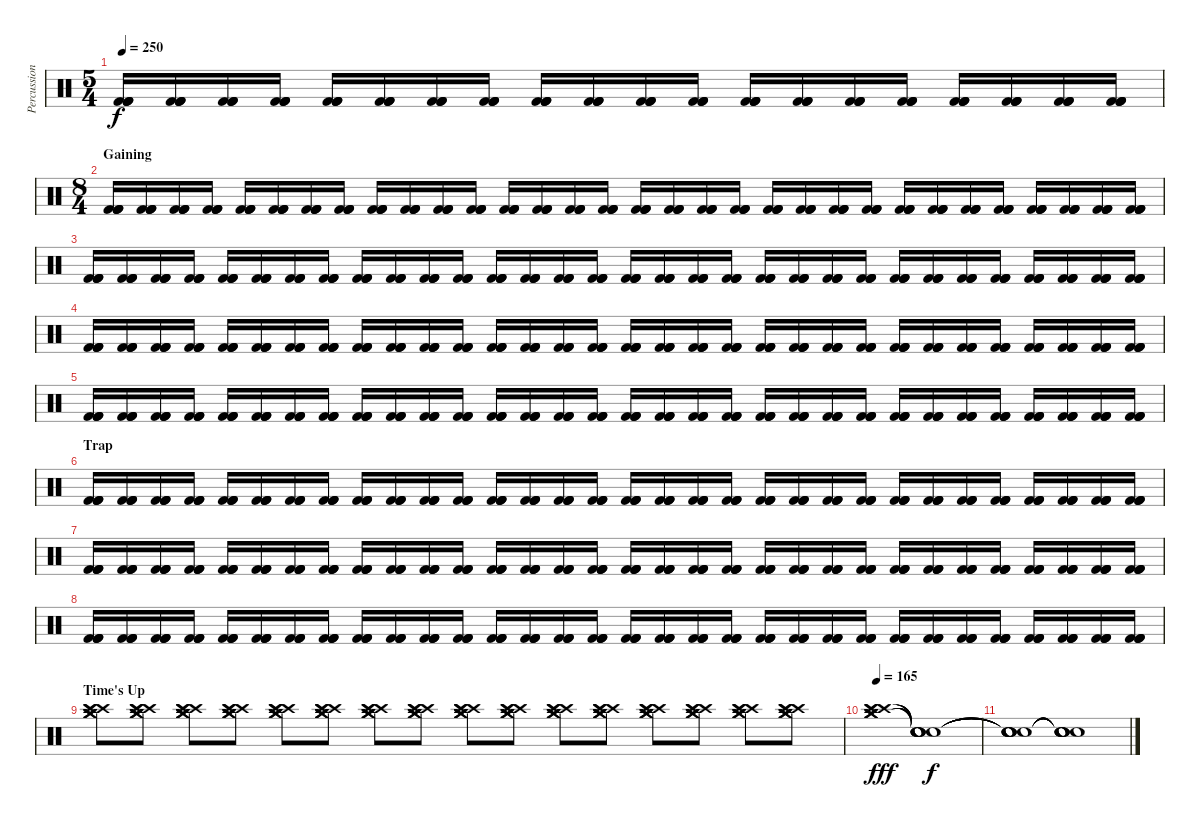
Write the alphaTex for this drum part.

\track ("Percussion" "Percussion") {instrument percussion}
\staff {score}
\articulation defaults
\ts (5 4)
\tempo 250
\clef neutral
\ks c
("Kick (hit) 2" "Kick (hit) 2" "Kick (hit) 2" "Kick (hit) 2").16{dy f} ("Kick (hit) 2" "Kick (hit) 2" "Kick (hit) 2" "Kick (hit) 2").16 ("Kick (hit) 2" "Kick (hit) 2" "Kick (hit) 2" "Kick (hit) 2").16 ("Kick (hit) 2" "Kick (hit) 2" "Kick (hit) 2" "Kick (hit) 2").16 ("Kick (hit) 2" "Kick (hit) 2" "Kick (hit) 2" "Kick (hit) 2").16 ("Kick (hit) 2" "Kick (hit) 2" "Kick (hit) 2" "Kick (hit) 2").16 ("Kick (hit) 2" "Kick (hit) 2" "Kick (hit) 2" "Kick (hit) 2").16 ("Kick (hit) 2" "Kick (hit) 2" "Kick (hit) 2" "Kick (hit) 2").16 ("Kick (hit) 2" "Kick (hit) 2" "Kick (hit) 2" "Kick (hit) 2").16 ("Kick (hit) 2" "Kick (hit) 2" "Kick (hit) 2" "Kick (hit) 2").16 ("Kick (hit) 2" "Kick (hit) 2" "Kick (hit) 2" "Kick (hit) 2").16 ("Kick (hit) 2" "Kick (hit) 2" "Kick (hit) 2" "Kick (hit) 2").16 ("Kick (hit) 2" "Kick (hit) 2" "Kick (hit) 2" "Kick (hit) 2").16 ("Kick (hit) 2" "Kick (hit) 2" "Kick (hit) 2" "Kick (hit) 2").16 ("Kick (hit) 2" "Kick (hit) 2" "Kick (hit) 2" "Kick (hit) 2").16 ("Kick (hit) 2" "Kick (hit) 2" "Kick (hit) 2" "Kick (hit) 2").16 ("Kick (hit) 2" "Kick (hit) 2" "Kick (hit) 2" "Kick (hit) 2").16 ("Kick (hit) 2" "Kick (hit) 2" "Kick (hit) 2" "Kick (hit) 2").16 ("Kick (hit) 2" "Kick (hit) 2" "Kick (hit) 2" "Kick (hit) 2").16 ("Kick (hit) 2" "Kick (hit) 2" "Kick (hit) 2" "Kick (hit) 2").16 |
\ts (8 4)
\section ("" "Gaining")
("Kick (hit) 2" "Kick (hit) 2" "Kick (hit) 2" "Kick (hit) 2").16 ("Kick (hit) 2" "Kick (hit) 2" "Kick (hit) 2" "Kick (hit) 2").16 ("Kick (hit) 2" "Kick (hit) 2" "Kick (hit) 2" "Kick (hit) 2").16 ("Kick (hit) 2" "Kick (hit) 2" "Kick (hit) 2" "Kick (hit) 2").16 ("Kick (hit) 2" "Kick (hit) 2" "Kick (hit) 2" "Kick (hit) 2").16 ("Kick (hit) 2" "Kick (hit) 2" "Kick (hit) 2" "Kick (hit) 2").16 ("Kick (hit) 2" "Kick (hit) 2" "Kick (hit) 2" "Kick (hit) 2").16 ("Kick (hit) 2" "Kick (hit) 2" "Kick (hit) 2" "Kick (hit) 2").16 ("Kick (hit) 2" "Kick (hit) 2" "Kick (hit) 2" "Kick (hit) 2").16 ("Kick (hit) 2" "Kick (hit) 2" "Kick (hit) 2" "Kick (hit) 2").16 ("Kick (hit) 2" "Kick (hit) 2" "Kick (hit) 2" "Kick (hit) 2").16 ("Kick (hit) 2" "Kick (hit) 2" "Kick (hit) 2" "Kick (hit) 2").16 ("Kick (hit) 2" "Kick (hit) 2" "Kick (hit) 2" "Kick (hit) 2").16 ("Kick (hit) 2" "Kick (hit) 2" "Kick (hit) 2" "Kick (hit) 2").16 ("Kick (hit) 2" "Kick (hit) 2" "Kick (hit) 2" "Kick (hit) 2").16 ("Kick (hit) 2" "Kick (hit) 2" "Kick (hit) 2" "Kick (hit) 2").16 ("Kick (hit) 2" "Kick (hit) 2" "Kick (hit) 2" "Kick (hit) 2").16 ("Kick (hit) 2" "Kick (hit) 2" "Kick (hit) 2" "Kick (hit) 2").16 ("Kick (hit) 2" "Kick (hit) 2" "Kick (hit) 2" "Kick (hit) 2").16 ("Kick (hit) 2" "Kick (hit) 2" "Kick (hit) 2" "Kick (hit) 2").16 ("Kick (hit) 2" "Kick (hit) 2" "Kick (hit) 2" "Kick (hit) 2").16 ("Kick (hit) 2" "Kick (hit) 2" "Kick (hit) 2" "Kick (hit) 2").16 ("Kick (hit) 2" "Kick (hit) 2" "Kick (hit) 2" "Kick (hit) 2").16 ("Kick (hit) 2" "Kick (hit) 2" "Kick (hit) 2" "Kick (hit) 2").16 ("Kick (hit) 2" "Kick (hit) 2" "Kick (hit) 2" "Kick (hit) 2").16 ("Kick (hit) 2" "Kick (hit) 2" "Kick (hit) 2" "Kick (hit) 2").16 ("Kick (hit) 2" "Kick (hit) 2" "Kick (hit) 2" "Kick (hit) 2").16 ("Kick (hit) 2" "Kick (hit) 2" "Kick (hit) 2" "Kick (hit) 2").16 ("Kick (hit) 2" "Kick (hit) 2" "Kick (hit) 2" "Kick (hit) 2").16 ("Kick (hit) 2" "Kick (hit) 2" "Kick (hit) 2" "Kick (hit) 2").16 ("Kick (hit) 2" "Kick (hit) 2" "Kick (hit) 2" "Kick (hit) 2").16 ("Kick (hit) 2" "Kick (hit) 2" "Kick (hit) 2" "Kick (hit) 2").16 |
("Kick (hit) 2" "Kick (hit) 2" "Kick (hit) 2" "Kick (hit) 2").16 ("Kick (hit) 2" "Kick (hit) 2" "Kick (hit) 2" "Kick (hit) 2").16 ("Kick (hit) 2" "Kick (hit) 2" "Kick (hit) 2" "Kick (hit) 2").16 ("Kick (hit) 2" "Kick (hit) 2" "Kick (hit) 2" "Kick (hit) 2").16 ("Kick (hit) 2" "Kick (hit) 2" "Kick (hit) 2" "Kick (hit) 2").16 ("Kick (hit) 2" "Kick (hit) 2" "Kick (hit) 2" "Kick (hit) 2").16 ("Kick (hit) 2" "Kick (hit) 2" "Kick (hit) 2" "Kick (hit) 2").16 ("Kick (hit) 2" "Kick (hit) 2" "Kick (hit) 2" "Kick (hit) 2").16 ("Kick (hit) 2" "Kick (hit) 2" "Kick (hit) 2" "Kick (hit) 2").16 ("Kick (hit) 2" "Kick (hit) 2" "Kick (hit) 2" "Kick (hit) 2").16 ("Kick (hit) 2" "Kick (hit) 2" "Kick (hit) 2" "Kick (hit) 2").16 ("Kick (hit) 2" "Kick (hit) 2" "Kick (hit) 2" "Kick (hit) 2").16 ("Kick (hit) 2" "Kick (hit) 2" "Kick (hit) 2" "Kick (hit) 2").16 ("Kick (hit) 2" "Kick (hit) 2" "Kick (hit) 2" "Kick (hit) 2").16 ("Kick (hit) 2" "Kick (hit) 2" "Kick (hit) 2" "Kick (hit) 2").16 ("Kick (hit) 2" "Kick (hit) 2" "Kick (hit) 2" "Kick (hit) 2").16 ("Kick (hit) 2" "Kick (hit) 2" "Kick (hit) 2" "Kick (hit) 2").16 ("Kick (hit) 2" "Kick (hit) 2" "Kick (hit) 2" "Kick (hit) 2").16 ("Kick (hit) 2" "Kick (hit) 2" "Kick (hit) 2" "Kick (hit) 2").16 ("Kick (hit) 2" "Kick (hit) 2" "Kick (hit) 2" "Kick (hit) 2").16 ("Kick (hit) 2" "Kick (hit) 2" "Kick (hit) 2" "Kick (hit) 2").16 ("Kick (hit) 2" "Kick (hit) 2" "Kick (hit) 2" "Kick (hit) 2").16 ("Kick (hit) 2" "Kick (hit) 2" "Kick (hit) 2" "Kick (hit) 2").16 ("Kick (hit) 2" "Kick (hit) 2" "Kick (hit) 2" "Kick (hit) 2").16 ("Kick (hit) 2" "Kick (hit) 2" "Kick (hit) 2" "Kick (hit) 2").16 ("Kick (hit) 2" "Kick (hit) 2" "Kick (hit) 2" "Kick (hit) 2").16 ("Kick (hit) 2" "Kick (hit) 2" "Kick (hit) 2" "Kick (hit) 2").16 ("Kick (hit) 2" "Kick (hit) 2" "Kick (hit) 2" "Kick (hit) 2").16 ("Kick (hit) 2" "Kick (hit) 2" "Kick (hit) 2" "Kick (hit) 2").16 ("Kick (hit) 2" "Kick (hit) 2" "Kick (hit) 2" "Kick (hit) 2").16 ("Kick (hit) 2" "Kick (hit) 2" "Kick (hit) 2" "Kick (hit) 2").16 ("Kick (hit) 2" "Kick (hit) 2" "Kick (hit) 2" "Kick (hit) 2").16 |
("Kick (hit) 2" "Kick (hit) 2" "Kick (hit) 2" "Kick (hit) 2").16 ("Kick (hit) 2" "Kick (hit) 2" "Kick (hit) 2" "Kick (hit) 2").16 ("Kick (hit) 2" "Kick (hit) 2" "Kick (hit) 2" "Kick (hit) 2").16 ("Kick (hit) 2" "Kick (hit) 2" "Kick (hit) 2" "Kick (hit) 2").16 ("Kick (hit) 2" "Kick (hit) 2" "Kick (hit) 2" "Kick (hit) 2").16 ("Kick (hit) 2" "Kick (hit) 2" "Kick (hit) 2" "Kick (hit) 2").16 ("Kick (hit) 2" "Kick (hit) 2" "Kick (hit) 2" "Kick (hit) 2").16 ("Kick (hit) 2" "Kick (hit) 2" "Kick (hit) 2" "Kick (hit) 2").16 ("Kick (hit) 2" "Kick (hit) 2" "Kick (hit) 2" "Kick (hit) 2").16 ("Kick (hit) 2" "Kick (hit) 2" "Kick (hit) 2" "Kick (hit) 2").16 ("Kick (hit) 2" "Kick (hit) 2" "Kick (hit) 2" "Kick (hit) 2").16 ("Kick (hit) 2" "Kick (hit) 2" "Kick (hit) 2" "Kick (hit) 2").16 ("Kick (hit) 2" "Kick (hit) 2" "Kick (hit) 2" "Kick (hit) 2").16 ("Kick (hit) 2" "Kick (hit) 2" "Kick (hit) 2" "Kick (hit) 2").16 ("Kick (hit) 2" "Kick (hit) 2" "Kick (hit) 2" "Kick (hit) 2").16 ("Kick (hit) 2" "Kick (hit) 2" "Kick (hit) 2" "Kick (hit) 2").16 ("Kick (hit) 2" "Kick (hit) 2" "Kick (hit) 2" "Kick (hit) 2").16 ("Kick (hit) 2" "Kick (hit) 2" "Kick (hit) 2" "Kick (hit) 2").16 ("Kick (hit) 2" "Kick (hit) 2" "Kick (hit) 2" "Kick (hit) 2").16 ("Kick (hit) 2" "Kick (hit) 2" "Kick (hit) 2" "Kick (hit) 2").16 ("Kick (hit) 2" "Kick (hit) 2" "Kick (hit) 2" "Kick (hit) 2").16 ("Kick (hit) 2" "Kick (hit) 2" "Kick (hit) 2" "Kick (hit) 2").16 ("Kick (hit) 2" "Kick (hit) 2" "Kick (hit) 2" "Kick (hit) 2").16 ("Kick (hit) 2" "Kick (hit) 2" "Kick (hit) 2" "Kick (hit) 2").16 ("Kick (hit) 2" "Kick (hit) 2" "Kick (hit) 2" "Kick (hit) 2").16 ("Kick (hit) 2" "Kick (hit) 2" "Kick (hit) 2" "Kick (hit) 2").16 ("Kick (hit) 2" "Kick (hit) 2" "Kick (hit) 2" "Kick (hit) 2").16 ("Kick (hit) 2" "Kick (hit) 2" "Kick (hit) 2" "Kick (hit) 2").16 ("Kick (hit) 2" "Kick (hit) 2" "Kick (hit) 2" "Kick (hit) 2").16 ("Kick (hit) 2" "Kick (hit) 2" "Kick (hit) 2" "Kick (hit) 2").16 ("Kick (hit) 2" "Kick (hit) 2" "Kick (hit) 2" "Kick (hit) 2").16 ("Kick (hit) 2" "Kick (hit) 2" "Kick (hit) 2" "Kick (hit) 2").16 |
("Kick (hit) 2" "Kick (hit) 2" "Kick (hit) 2" "Kick (hit) 2").16 ("Kick (hit) 2" "Kick (hit) 2" "Kick (hit) 2" "Kick (hit) 2").16 ("Kick (hit) 2" "Kick (hit) 2" "Kick (hit) 2" "Kick (hit) 2").16 ("Kick (hit) 2" "Kick (hit) 2" "Kick (hit) 2" "Kick (hit) 2").16 ("Kick (hit) 2" "Kick (hit) 2" "Kick (hit) 2" "Kick (hit) 2").16 ("Kick (hit) 2" "Kick (hit) 2" "Kick (hit) 2" "Kick (hit) 2").16 ("Kick (hit) 2" "Kick (hit) 2" "Kick (hit) 2" "Kick (hit) 2").16 ("Kick (hit) 2" "Kick (hit) 2" "Kick (hit) 2" "Kick (hit) 2").16 ("Kick (hit) 2" "Kick (hit) 2" "Kick (hit) 2" "Kick (hit) 2").16 ("Kick (hit) 2" "Kick (hit) 2" "Kick (hit) 2" "Kick (hit) 2").16 ("Kick (hit) 2" "Kick (hit) 2" "Kick (hit) 2" "Kick (hit) 2").16 ("Kick (hit) 2" "Kick (hit) 2" "Kick (hit) 2" "Kick (hit) 2").16 ("Kick (hit) 2" "Kick (hit) 2" "Kick (hit) 2" "Kick (hit) 2").16 ("Kick (hit) 2" "Kick (hit) 2" "Kick (hit) 2" "Kick (hit) 2").16 ("Kick (hit) 2" "Kick (hit) 2" "Kick (hit) 2" "Kick (hit) 2").16 ("Kick (hit) 2" "Kick (hit) 2" "Kick (hit) 2" "Kick (hit) 2").16 ("Kick (hit) 2" "Kick (hit) 2" "Kick (hit) 2" "Kick (hit) 2").16 ("Kick (hit) 2" "Kick (hit) 2" "Kick (hit) 2" "Kick (hit) 2").16 ("Kick (hit) 2" "Kick (hit) 2" "Kick (hit) 2" "Kick (hit) 2").16 ("Kick (hit) 2" "Kick (hit) 2" "Kick (hit) 2" "Kick (hit) 2").16 ("Kick (hit) 2" "Kick (hit) 2" "Kick (hit) 2" "Kick (hit) 2").16 ("Kick (hit) 2" "Kick (hit) 2" "Kick (hit) 2" "Kick (hit) 2").16 ("Kick (hit) 2" "Kick (hit) 2" "Kick (hit) 2" "Kick (hit) 2").16 ("Kick (hit) 2" "Kick (hit) 2" "Kick (hit) 2" "Kick (hit) 2").16 ("Kick (hit) 2" "Kick (hit) 2" "Kick (hit) 2" "Kick (hit) 2").16 ("Kick (hit) 2" "Kick (hit) 2" "Kick (hit) 2" "Kick (hit) 2").16 ("Kick (hit) 2" "Kick (hit) 2" "Kick (hit) 2" "Kick (hit) 2").16 ("Kick (hit) 2" "Kick (hit) 2" "Kick (hit) 2" "Kick (hit) 2").16 ("Kick (hit) 2" "Kick (hit) 2" "Kick (hit) 2" "Kick (hit) 2").16 ("Kick (hit) 2" "Kick (hit) 2" "Kick (hit) 2" "Kick (hit) 2").16 ("Kick (hit) 2" "Kick (hit) 2" "Kick (hit) 2" "Kick (hit) 2").16 ("Kick (hit) 2" "Kick (hit) 2" "Kick (hit) 2" "Kick (hit) 2").16 |
\section ("" "Trap")
("Kick (hit) 2" "Kick (hit) 2" "Kick (hit) 2" "Kick (hit) 2").16 ("Kick (hit) 2" "Kick (hit) 2" "Kick (hit) 2" "Kick (hit) 2").16 ("Kick (hit) 2" "Kick (hit) 2" "Kick (hit) 2" "Kick (hit) 2").16 ("Kick (hit) 2" "Kick (hit) 2" "Kick (hit) 2" "Kick (hit) 2").16 ("Kick (hit) 2" "Kick (hit) 2" "Kick (hit) 2" "Kick (hit) 2").16 ("Kick (hit) 2" "Kick (hit) 2" "Kick (hit) 2" "Kick (hit) 2").16 ("Kick (hit) 2" "Kick (hit) 2" "Kick (hit) 2" "Kick (hit) 2").16 ("Kick (hit) 2" "Kick (hit) 2" "Kick (hit) 2" "Kick (hit) 2").16 ("Kick (hit) 2" "Kick (hit) 2" "Kick (hit) 2" "Kick (hit) 2").16 ("Kick (hit) 2" "Kick (hit) 2" "Kick (hit) 2" "Kick (hit) 2").16 ("Kick (hit) 2" "Kick (hit) 2" "Kick (hit) 2" "Kick (hit) 2").16 ("Kick (hit) 2" "Kick (hit) 2" "Kick (hit) 2" "Kick (hit) 2").16 ("Kick (hit) 2" "Kick (hit) 2" "Kick (hit) 2" "Kick (hit) 2").16 ("Kick (hit) 2" "Kick (hit) 2" "Kick (hit) 2" "Kick (hit) 2").16 ("Kick (hit) 2" "Kick (hit) 2" "Kick (hit) 2" "Kick (hit) 2").16 ("Kick (hit) 2" "Kick (hit) 2" "Kick (hit) 2" "Kick (hit) 2").16 ("Kick (hit) 2" "Kick (hit) 2" "Kick (hit) 2" "Kick (hit) 2").16 ("Kick (hit) 2" "Kick (hit) 2" "Kick (hit) 2" "Kick (hit) 2").16 ("Kick (hit) 2" "Kick (hit) 2" "Kick (hit) 2" "Kick (hit) 2").16 ("Kick (hit) 2" "Kick (hit) 2" "Kick (hit) 2" "Kick (hit) 2").16 ("Kick (hit) 2" "Kick (hit) 2" "Kick (hit) 2" "Kick (hit) 2").16 ("Kick (hit) 2" "Kick (hit) 2" "Kick (hit) 2" "Kick (hit) 2").16 ("Kick (hit) 2" "Kick (hit) 2" "Kick (hit) 2" "Kick (hit) 2").16 ("Kick (hit) 2" "Kick (hit) 2" "Kick (hit) 2" "Kick (hit) 2").16 ("Kick (hit) 2" "Kick (hit) 2" "Kick (hit) 2" "Kick (hit) 2").16 ("Kick (hit) 2" "Kick (hit) 2" "Kick (hit) 2" "Kick (hit) 2").16 ("Kick (hit) 2" "Kick (hit) 2" "Kick (hit) 2" "Kick (hit) 2").16 ("Kick (hit) 2" "Kick (hit) 2" "Kick (hit) 2" "Kick (hit) 2").16 ("Kick (hit) 2" "Kick (hit) 2" "Kick (hit) 2" "Kick (hit) 2").16 ("Kick (hit) 2" "Kick (hit) 2" "Kick (hit) 2" "Kick (hit) 2").16 ("Kick (hit) 2" "Kick (hit) 2" "Kick (hit) 2" "Kick (hit) 2").16 ("Kick (hit) 2" "Kick (hit) 2" "Kick (hit) 2" "Kick (hit) 2").16 |
("Kick (hit) 2" "Kick (hit) 2" "Kick (hit) 2" "Kick (hit) 2").16 ("Kick (hit) 2" "Kick (hit) 2" "Kick (hit) 2" "Kick (hit) 2").16 ("Kick (hit) 2" "Kick (hit) 2" "Kick (hit) 2" "Kick (hit) 2").16 ("Kick (hit) 2" "Kick (hit) 2" "Kick (hit) 2" "Kick (hit) 2").16 ("Kick (hit) 2" "Kick (hit) 2" "Kick (hit) 2" "Kick (hit) 2").16 ("Kick (hit) 2" "Kick (hit) 2" "Kick (hit) 2" "Kick (hit) 2").16 ("Kick (hit) 2" "Kick (hit) 2" "Kick (hit) 2" "Kick (hit) 2").16 ("Kick (hit) 2" "Kick (hit) 2" "Kick (hit) 2" "Kick (hit) 2").16 ("Kick (hit) 2" "Kick (hit) 2" "Kick (hit) 2" "Kick (hit) 2").16 ("Kick (hit) 2" "Kick (hit) 2" "Kick (hit) 2" "Kick (hit) 2").16 ("Kick (hit) 2" "Kick (hit) 2" "Kick (hit) 2" "Kick (hit) 2").16 ("Kick (hit) 2" "Kick (hit) 2" "Kick (hit) 2" "Kick (hit) 2").16 ("Kick (hit) 2" "Kick (hit) 2" "Kick (hit) 2" "Kick (hit) 2").16 ("Kick (hit) 2" "Kick (hit) 2" "Kick (hit) 2" "Kick (hit) 2").16 ("Kick (hit) 2" "Kick (hit) 2" "Kick (hit) 2" "Kick (hit) 2").16 ("Kick (hit) 2" "Kick (hit) 2" "Kick (hit) 2" "Kick (hit) 2").16 ("Kick (hit) 2" "Kick (hit) 2" "Kick (hit) 2" "Kick (hit) 2").16 ("Kick (hit) 2" "Kick (hit) 2" "Kick (hit) 2" "Kick (hit) 2").16 ("Kick (hit) 2" "Kick (hit) 2" "Kick (hit) 2" "Kick (hit) 2").16 ("Kick (hit) 2" "Kick (hit) 2" "Kick (hit) 2" "Kick (hit) 2").16 ("Kick (hit) 2" "Kick (hit) 2" "Kick (hit) 2" "Kick (hit) 2").16 ("Kick (hit) 2" "Kick (hit) 2" "Kick (hit) 2" "Kick (hit) 2").16 ("Kick (hit) 2" "Kick (hit) 2" "Kick (hit) 2" "Kick (hit) 2").16 ("Kick (hit) 2" "Kick (hit) 2" "Kick (hit) 2" "Kick (hit) 2").16 ("Kick (hit) 2" "Kick (hit) 2" "Kick (hit) 2" "Kick (hit) 2").16 ("Kick (hit) 2" "Kick (hit) 2" "Kick (hit) 2" "Kick (hit) 2").16 ("Kick (hit) 2" "Kick (hit) 2" "Kick (hit) 2" "Kick (hit) 2").16 ("Kick (hit) 2" "Kick (hit) 2" "Kick (hit) 2" "Kick (hit) 2").16 ("Kick (hit) 2" "Kick (hit) 2" "Kick (hit) 2" "Kick (hit) 2").16 ("Kick (hit) 2" "Kick (hit) 2" "Kick (hit) 2" "Kick (hit) 2").16 ("Kick (hit) 2" "Kick (hit) 2" "Kick (hit) 2" "Kick (hit) 2").16 ("Kick (hit) 2" "Kick (hit) 2" "Kick (hit) 2" "Kick (hit) 2").16 |
("Kick (hit) 2" "Kick (hit) 2" "Kick (hit) 2" "Kick (hit) 2").16 ("Kick (hit) 2" "Kick (hit) 2" "Kick (hit) 2" "Kick (hit) 2").16 ("Kick (hit) 2" "Kick (hit) 2" "Kick (hit) 2" "Kick (hit) 2").16 ("Kick (hit) 2" "Kick (hit) 2" "Kick (hit) 2" "Kick (hit) 2").16 ("Kick (hit) 2" "Kick (hit) 2" "Kick (hit) 2" "Kick (hit) 2").16 ("Kick (hit) 2" "Kick (hit) 2" "Kick (hit) 2" "Kick (hit) 2").16 ("Kick (hit) 2" "Kick (hit) 2" "Kick (hit) 2" "Kick (hit) 2").16 ("Kick (hit) 2" "Kick (hit) 2" "Kick (hit) 2" "Kick (hit) 2").16 ("Kick (hit) 2" "Kick (hit) 2" "Kick (hit) 2" "Kick (hit) 2").16 ("Kick (hit) 2" "Kick (hit) 2" "Kick (hit) 2" "Kick (hit) 2").16 ("Kick (hit) 2" "Kick (hit) 2" "Kick (hit) 2" "Kick (hit) 2").16 ("Kick (hit) 2" "Kick (hit) 2" "Kick (hit) 2" "Kick (hit) 2").16 ("Kick (hit) 2" "Kick (hit) 2" "Kick (hit) 2" "Kick (hit) 2").16 ("Kick (hit) 2" "Kick (hit) 2" "Kick (hit) 2" "Kick (hit) 2").16 ("Kick (hit) 2" "Kick (hit) 2" "Kick (hit) 2" "Kick (hit) 2").16 ("Kick (hit) 2" "Kick (hit) 2" "Kick (hit) 2" "Kick (hit) 2").16 ("Kick (hit) 2" "Kick (hit) 2" "Kick (hit) 2" "Kick (hit) 2").16 ("Kick (hit) 2" "Kick (hit) 2" "Kick (hit) 2" "Kick (hit) 2").16 ("Kick (hit) 2" "Kick (hit) 2" "Kick (hit) 2" "Kick (hit) 2").16 ("Kick (hit) 2" "Kick (hit) 2" "Kick (hit) 2" "Kick (hit) 2").16 ("Kick (hit) 2" "Kick (hit) 2" "Kick (hit) 2" "Kick (hit) 2").16 ("Kick (hit) 2" "Kick (hit) 2" "Kick (hit) 2" "Kick (hit) 2").16 ("Kick (hit) 2" "Kick (hit) 2" "Kick (hit) 2" "Kick (hit) 2").16 ("Kick (hit) 2" "Kick (hit) 2" "Kick (hit) 2" "Kick (hit) 2").16 ("Kick (hit) 2" "Kick (hit) 2" "Kick (hit) 2" "Kick (hit) 2").16 ("Kick (hit) 2" "Kick (hit) 2" "Kick (hit) 2" "Kick (hit) 2").16 ("Kick (hit) 2" "Kick (hit) 2" "Kick (hit) 2" "Kick (hit) 2").16 ("Kick (hit) 2" "Kick (hit) 2" "Kick (hit) 2" "Kick (hit) 2").16 ("Kick (hit) 2" "Kick (hit) 2" "Kick (hit) 2" "Kick (hit) 2").16 ("Kick (hit) 2" "Kick (hit) 2" "Kick (hit) 2" "Kick (hit) 2").16 ("Kick (hit) 2" "Kick (hit) 2" "Kick (hit) 2" "Kick (hit) 2").16 ("Kick (hit) 2" "Kick (hit) 2" "Kick (hit) 2" "Kick (hit) 2").16 |
\section ("" "Time's Up")
("Crash high (hit)" "Crash high (hit)" "Crash high (hit)" "Crash medium (hit)" "Crash medium (hit)" "Crash medium (hit)").8 ("Crash high (hit)" "Crash high (hit)" "Crash high (hit)" "Crash medium (hit)" "Crash medium (hit)" "Crash medium (hit)").8 ("Crash high (hit)" "Crash high (hit)" "Crash high (hit)" "Crash medium (hit)" "Crash medium (hit)" "Crash medium (hit)").8 ("Crash high (hit)" "Crash high (hit)" "Crash high (hit)" "Crash medium (hit)" "Crash medium (hit)" "Crash medium (hit)").8 ("Crash high (hit)" "Crash high (hit)" "Crash high (hit)" "Crash medium (hit)" "Crash medium (hit)" "Crash medium (hit)").8 ("Crash high (hit)" "Crash high (hit)" "Crash high (hit)" "Crash medium (hit)" "Crash medium (hit)" "Crash medium (hit)").8 ("Crash high (hit)" "Crash high (hit)" "Crash high (hit)" "Crash medium (hit)" "Crash medium (hit)" "Crash medium (hit)").8 ("Crash high (hit)" "Crash high (hit)" "Crash high (hit)" "Crash medium (hit)" "Crash medium (hit)" "Crash medium (hit)").8 ("Crash high (hit)" "Crash high (hit)" "Crash high (hit)" "Crash medium (hit)" "Crash medium (hit)" "Crash medium (hit)").8 ("Crash high (hit)" "Crash high (hit)" "Crash high (hit)" "Crash medium (hit)" "Crash medium (hit)" "Crash medium (hit)").8 ("Crash high (hit)" "Crash high (hit)" "Crash high (hit)" "Crash medium (hit)" "Crash medium (hit)" "Crash medium (hit)").8 ("Crash high (hit)" "Crash high (hit)" "Crash high (hit)" "Crash medium (hit)" "Crash medium (hit)" "Crash medium (hit)").8 ("Crash high (hit)" "Crash high (hit)" "Crash high (hit)" "Crash medium (hit)" "Crash medium (hit)" "Crash medium (hit)").8 ("Crash high (hit)" "Crash high (hit)" "Crash high (hit)" "Crash medium (hit)" "Crash medium (hit)" "Crash medium (hit)").8 ("Crash high (hit)" "Crash high (hit)" "Crash high (hit)" "Crash medium (hit)" "Crash medium (hit)" "Crash medium (hit)").8 ("Crash high (hit)" "Crash high (hit)" "Crash high (hit)" "Crash medium (hit)" "Crash medium (hit)" "Crash medium (hit)").8 |
\tempo 165
("Crash high (hit)" "Crash high (hit)" "Crash high (hit)" "Crash medium (hit)" "Crash medium (hit)" "Crash medium (hit)").1{dy fff} ("Snare (hit)"{t} "Snare (hit)"{t} "Snare (hit)"{t} "Snare (hit)"{t} "Snare (hit)"{t} "Snare (hit)"{t}).1{dy f} |
("Snare (hit)"{t} "Snare (hit)"{t} "Snare (hit)"{t} "Snare (hit)"{t} "Snare (hit)"{t} "Snare (hit)"{t}).1 ("Snare (hit)"{t} "Snare (hit)"{t} "Snare (hit)"{t} "Snare (hit)"{t} "Snare (hit)"{t} "Snare (hit)"{t}).1
